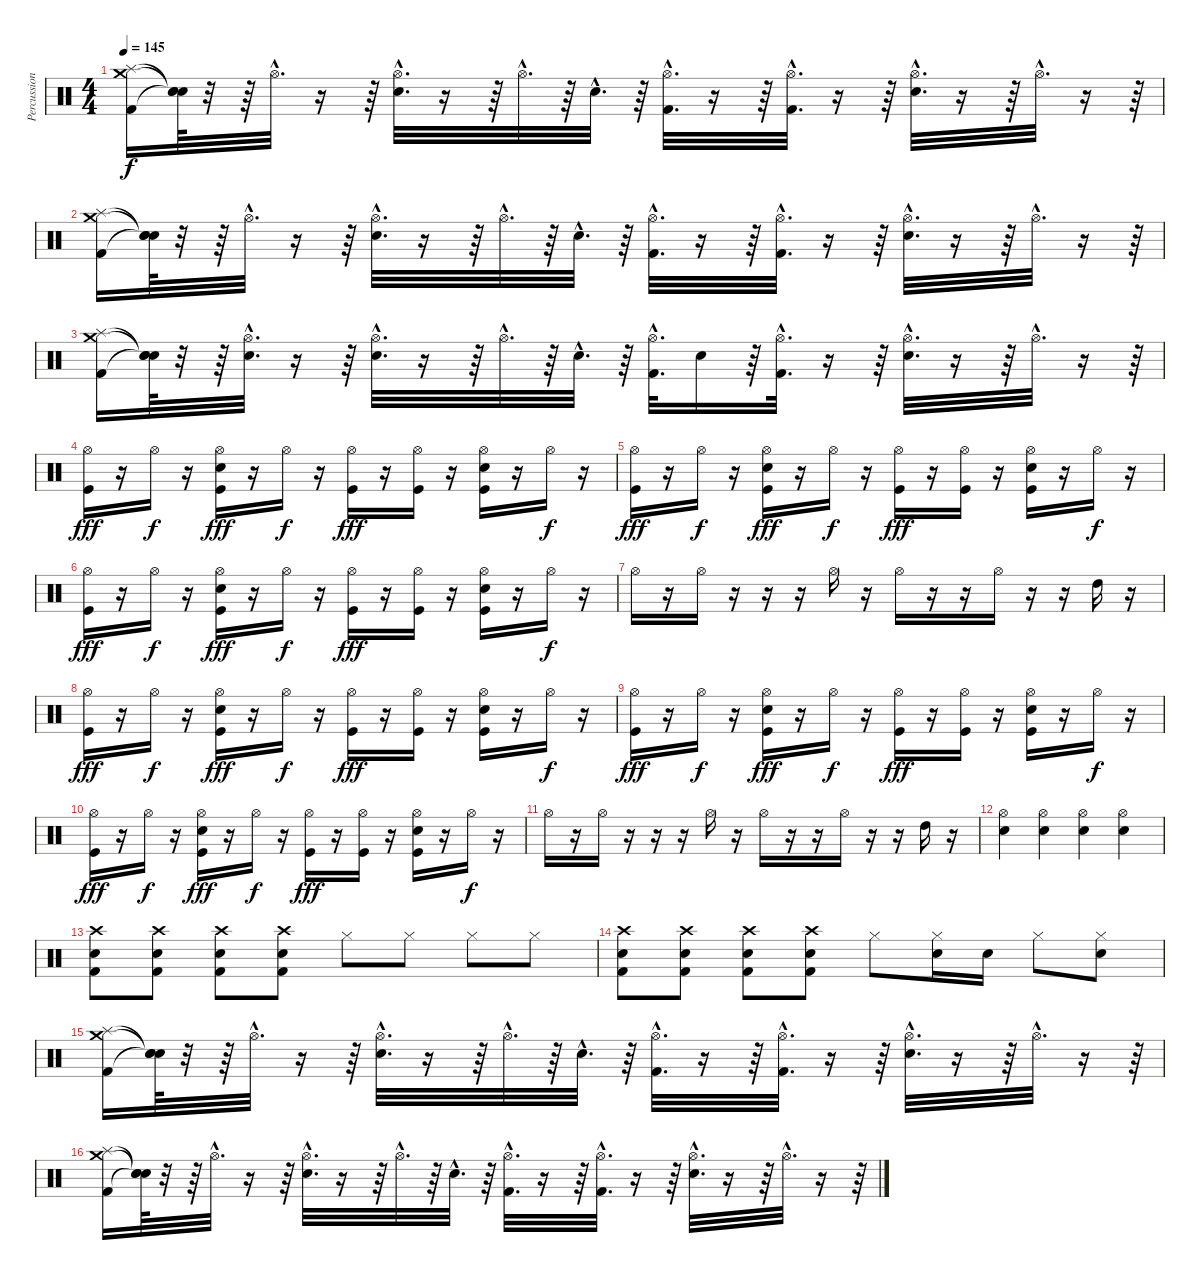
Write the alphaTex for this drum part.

\track ("Percussions" "Percussion") {instrument percussion}
\staff {score}
\articulation defaults
\ts (4 4)
\tempo 145
\clef neutral
\ks c
("Crash medium (hit)" "Splash (hit)" "Kick (hit) 2").16{dy f} ("Snare (hit)"{t} "Snare (hit)"{t} "Snare (hit)"{t}).64 r.32 r.64 "Hi-Hat (open)"{hac}.32{d} r.16 r.64 ("Hi-Hat (open)"{hac} "Electric Snare (hit)"{hac}).32{d} r.16 r.64 "Hi-Hat (open)"{hac}.32{d} r.64 "Electric Snare (hit)"{hac}.32{d} r.64 ("Hi-Hat (open)"{hac} "Kick (hit) 2"{hac}).32{d} r.16 r.64 ("Hi-Hat (open)"{hac} "Kick (hit) 2"{hac}).32{d} r.16 r.64 ("Hi-Hat (open)"{hac} "Electric Snare (hit)"{hac}).32{d} r.16 r.64 "Hi-Hat (open)"{hac}.32{d} r.16 r.64 |
("Crash medium (hit)" "Splash (hit)" "Kick (hit) 2").16 ("Snare (hit)"{t} "Snare (hit)"{t} "Snare (hit)"{t}).64 r.32 r.64 "Hi-Hat (open)"{hac}.32{d} r.16 r.64 ("Hi-Hat (open)"{hac} "Electric Snare (hit)"{hac}).32{d} r.16 r.64 "Hi-Hat (open)"{hac}.32{d} r.64 "Electric Snare (hit)"{hac}.32{d} r.64 ("Hi-Hat (open)"{hac} "Kick (hit) 2"{hac}).32{d} r.16 r.64 ("Hi-Hat (open)"{hac} "Kick (hit) 2"{hac}).32{d} r.16 r.64 ("Hi-Hat (open)"{hac} "Electric Snare (hit)"{hac}).32{d} r.16 r.64 "Hi-Hat (open)"{hac}.32{d} r.16 r.64 |
("Crash medium (hit)" "Splash (hit)" "Kick (hit) 2").16 ("Snare (hit)"{t} "Snare (hit)"{t} "Snare (hit)"{t}).64 r.32 r.64 ("Hi-Hat (open)"{hac} "Electric Snare (hit)"{hac}).32{d} r.16 r.64 ("Hi-Hat (open)"{hac} "Electric Snare (hit)"{hac}).32{d} r.16 r.64 "Hi-Hat (open)"{hac}.32{d} r.64 "Electric Snare (hit)"{hac}.32{d} r.64 ("Hi-Hat (open)"{hac} "Kick (hit) 2"{hac}).32{d} "Electric Snare (hit)".16 r.64 ("Hi-Hat (open)"{hac} "Kick (hit) 2"{hac}).32{d} r.16 r.64 ("Hi-Hat (open)"{hac} "Electric Snare (hit)"{hac}).32{d} r.16 r.64 "Hi-Hat (open)"{hac}.32{d} r.16 r.64 |
("Kick (hit)" "Hi-Hat (open)").16{dy fff} r.16 "Hi-Hat (open)".16{dy f} r.16 ("Snare (hit) 2" "Kick (hit)" "Hi-Hat (open)").16{dy fff} r.16 "Hi-Hat (open)".16{dy f} r.16 ("Kick (hit)" "Hi-Hat (open)").16{dy fff} r.16 ("Kick (hit)" "Hi-Hat (open)").16 r.16 ("Kick (hit)" "Snare (hit) 2" "Hi-Hat (open)").16 r.16 "Hi-Hat (open)".16{dy f} r.16 |
("Kick (hit)" "Hi-Hat (open)").16{dy fff} r.16 "Hi-Hat (open)".16{dy f} r.16 ("Snare (hit) 2" "Kick (hit)" "Hi-Hat (open)").16{dy fff} r.16 "Hi-Hat (open)".16{dy f} r.16 ("Kick (hit)" "Hi-Hat (open)").16{dy fff} r.16 ("Kick (hit)" "Hi-Hat (open)").16 r.16 ("Kick (hit)" "Snare (hit) 2" "Hi-Hat (open)").16 r.16 "Hi-Hat (open)".16{dy f} r.16 |
("Kick (hit)" "Hi-Hat (open)").16{dy fff} r.16 "Hi-Hat (open)".16{dy f} r.16 ("Snare (hit) 2" "Kick (hit)" "Hi-Hat (open)").16{dy fff} r.16 "Hi-Hat (open)".16{dy f} r.16 ("Kick (hit)" "Hi-Hat (open)").16{dy fff} r.16 ("Kick (hit)" "Hi-Hat (open)").16 r.16 ("Kick (hit)" "Snare (hit) 2" "Hi-Hat (open)").16 r.16 "Hi-Hat (open)".16{dy f} r.16 |
"Hi-Hat (open)".16 r.16 "Hi-Hat (open)".16 r.16 r.16 r.16 "Hi-Hat (open)".16 r.16 "Hi-Hat (open)".16 r.16 r.16 "Hi-Hat (open)".16 r.16 r.16 "High Tom (hit)".16 r.16 |
("Kick (hit)" "Hi-Hat (open)").16{dy fff} r.16 "Hi-Hat (open)".16{dy f} r.16 ("Snare (hit) 2" "Kick (hit)" "Hi-Hat (open)").16{dy fff} r.16 "Hi-Hat (open)".16{dy f} r.16 ("Kick (hit)" "Hi-Hat (open)").16{dy fff} r.16 ("Kick (hit)" "Hi-Hat (open)").16 r.16 ("Kick (hit)" "Snare (hit) 2" "Hi-Hat (open)").16 r.16 "Hi-Hat (open)".16{dy f} r.16 |
("Kick (hit)" "Hi-Hat (open)").16{dy fff} r.16 "Hi-Hat (open)".16{dy f} r.16 ("Snare (hit) 2" "Kick (hit)" "Hi-Hat (open)").16{dy fff} r.16 "Hi-Hat (open)".16{dy f} r.16 ("Kick (hit)" "Hi-Hat (open)").16{dy fff} r.16 ("Kick (hit)" "Hi-Hat (open)").16 r.16 ("Kick (hit)" "Snare (hit) 2" "Hi-Hat (open)").16 r.16 "Hi-Hat (open)".16{dy f} r.16 |
("Kick (hit)" "Hi-Hat (open)").16{dy fff} r.16 "Hi-Hat (open)".16{dy f} r.16 ("Snare (hit) 2" "Kick (hit)" "Hi-Hat (open)").16{dy fff} r.16 "Hi-Hat (open)".16{dy f} r.16 ("Kick (hit)" "Hi-Hat (open)").16{dy fff} r.16 ("Kick (hit)" "Hi-Hat (open)").16 r.16 ("Kick (hit)" "Snare (hit) 2" "Hi-Hat (open)").16 r.16 "Hi-Hat (open)".16{dy f} r.16 |
"Hi-Hat (open)".16 r.16 "Hi-Hat (open)".16 r.16 r.16 r.16 "Hi-Hat (open)".16 r.16 "Hi-Hat (open)".16 r.16 r.16 "Hi-Hat (open)".16 r.16 r.16 "High Tom (hit)".16 r.16 |
("Hi-Hat (open)" "Snare (hit) 2").4 ("Hi-Hat (open)" "Snare (hit) 2").4 ("Hi-Hat (open)" "Snare (hit) 2").4 ("Hi-Hat (open)" "Snare (hit) 2").4 |
("Crash high (hit)" "Snare (hit) 2" "Kick (hit) 2").8 ("Crash high (hit)" "Snare (hit) 2" "Kick (hit) 2").8 ("Crash high (hit)" "Snare (hit) 2" "Kick (hit) 2").8 ("Crash high (hit)" "Snare (hit) 2" "Kick (hit) 2").8 "Hi-Hat (closed)".8 "Hi-Hat (closed)".8 "Hi-Hat (closed)".8 "Hi-Hat (closed)".8 |
("Crash high (hit)" "Snare (hit) 2" "Kick (hit) 2").8 ("Crash high (hit)" "Snare (hit) 2" "Kick (hit) 2").8 ("Crash high (hit)" "Snare (hit) 2" "Kick (hit) 2").8 ("Crash high (hit)" "Snare (hit) 2" "Kick (hit) 2").8 "Hi-Hat (closed)".8 ("Hi-Hat (closed)" "Electric Snare (hit)").16 "Electric Snare (hit)".16 "Hi-Hat (closed)".8 ("Hi-Hat (closed)" "Electric Snare (hit)").8 |
("Crash medium (hit)" "Splash (hit)" "Kick (hit) 2").16 ("Snare (hit)"{t} "Snare (hit)"{t} "Snare (hit)"{t}).64 r.32 r.64 "Hi-Hat (open)"{hac}.32{d} r.16 r.64 ("Hi-Hat (open)"{hac} "Electric Snare (hit)"{hac}).32{d} r.16 r.64 "Hi-Hat (open)"{hac}.32{d} r.64 "Electric Snare (hit)"{hac}.32{d} r.64 ("Hi-Hat (open)"{hac} "Kick (hit) 2"{hac}).32{d} r.16 r.64 ("Hi-Hat (open)"{hac} "Kick (hit) 2"{hac}).32{d} r.16 r.64 ("Hi-Hat (open)"{hac} "Electric Snare (hit)"{hac}).32{d} r.16 r.64 "Hi-Hat (open)"{hac}.32{d} r.16 r.64 |
("Crash medium (hit)" "Splash (hit)" "Kick (hit) 2").16 ("Snare (hit)"{t} "Snare (hit)"{t} "Snare (hit)"{t}).64 r.32 r.64 "Hi-Hat (open)"{hac}.32{d} r.16 r.64 ("Hi-Hat (open)"{hac} "Electric Snare (hit)"{hac}).32{d} r.16 r.64 "Hi-Hat (open)"{hac}.32{d} r.64 "Electric Snare (hit)"{hac}.32{d} r.64 ("Hi-Hat (open)"{hac} "Kick (hit) 2"{hac}).32{d} r.16 r.64 ("Hi-Hat (open)"{hac} "Kick (hit) 2"{hac}).32{d} r.16 r.64 ("Hi-Hat (open)"{hac} "Electric Snare (hit)"{hac}).32{d} r.16 r.64 "Hi-Hat (open)"{hac}.32{d} r.16 r.64
